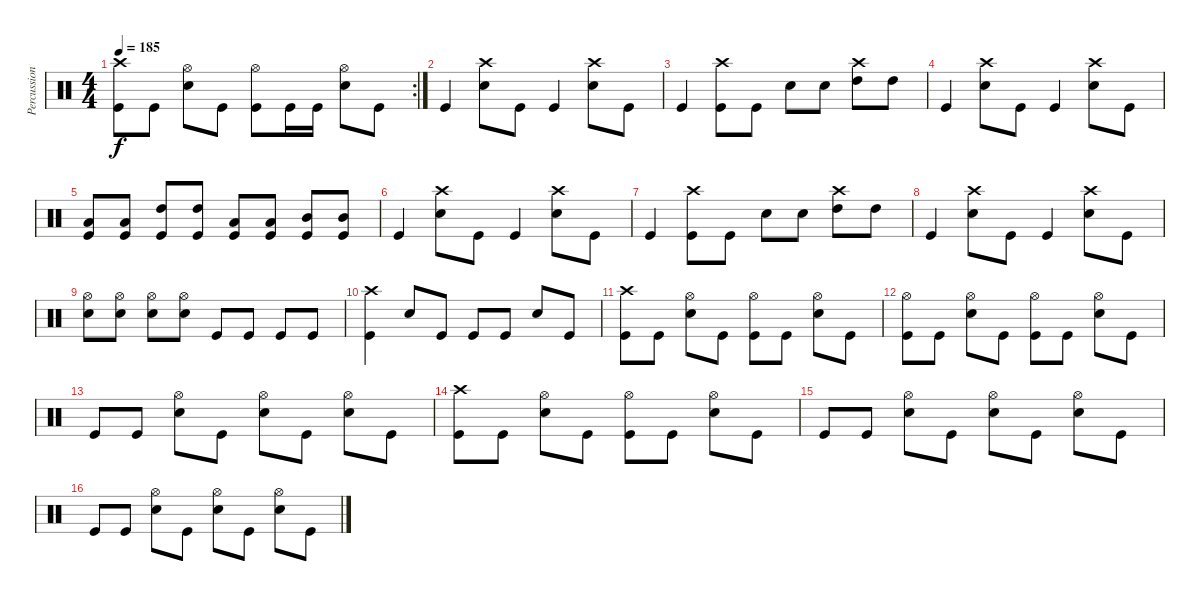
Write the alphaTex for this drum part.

\track ("Percussions" "Percussion") {instrument percussion}
\staff {score}
\articulation defaults
\rc 2
\ts (4 4)
\tempo 185
\clef neutral
\ks c
("Crash high (hit)" "Kick (hit)").8{dy f} "Kick (hit)".8 ("Hi-Hat (open)" "Snare (hit) 2").8 "Kick (hit)".8 ("Hi-Hat (open)" "Kick (hit)").8 "Kick (hit)".16 "Kick (hit)".16 ("Hi-Hat (open)" "Snare (hit) 2").8 "Kick (hit)".8 |
"Kick (hit)".4 ("Crash high (hit)" "Snare (hit) 2").8 "Kick (hit)".8 "Kick (hit)".4 ("Crash high (hit)" "Snare (hit) 2").8 "Kick (hit)".8 |
"Kick (hit)".4 ("Crash high (hit)" "Kick (hit)").8 "Kick (hit)".8 "Snare (hit) 2".8 "Snare (hit) 2".8 ("Crash high (hit)" "High Tom (hit)").8 "High Tom (hit)".8 |
"Kick (hit)".4 ("Crash high (hit)" "Snare (hit) 2").8 "Kick (hit)".8 "Kick (hit)".4 ("Crash high (hit)" "Snare (hit) 2").8 "Kick (hit)".8 |
("Low Tom (hit)" "Kick (hit)").8 ("Low Tom (hit)" "Kick (hit)").8 ("High Tom (hit)" "Kick (hit)").8 ("High Tom (hit)" "Kick (hit)").8 ("Low Tom (hit)" "Kick (hit)").8 ("Low Tom (hit)" "Kick (hit)").8 ("Mid Tom (hit)" "Kick (hit)").8 ("Mid Tom (hit)" "Kick (hit)").8 |
"Kick (hit)".4 ("Crash high (hit)" "Snare (hit) 2").8 "Kick (hit)".8 "Kick (hit)".4 ("Crash high (hit)" "Snare (hit) 2").8 "Kick (hit)".8 |
"Kick (hit)".4 ("Crash high (hit)" "Kick (hit)").8 "Kick (hit)".8 "Snare (hit) 2".8 "Snare (hit) 2".8 ("Crash high (hit)" "High Tom (hit)").8 "High Tom (hit)".8 |
"Kick (hit)".4 ("Crash high (hit)" "Snare (hit) 2").8 "Kick (hit)".8 "Kick (hit)".4 ("Crash high (hit)" "Snare (hit) 2").8 "Kick (hit)".8 |
("Hi-Hat (open)" "Snare (hit) 2").8 ("Hi-Hat (open)" "Snare (hit) 2").8 ("Hi-Hat (open)" "Snare (hit) 2").8 ("Hi-Hat (open)" "Snare (hit) 2").8 "Kick (hit)".8 "Kick (hit)".8 "Kick (hit)".8 "Kick (hit)".8 |
("Crash high (hit)" "Kick (hit)").4 "Snare (hit) 2".8 "Kick (hit)".8 "Kick (hit)".8 "Kick (hit)".8 "Snare (hit) 2".8 "Kick (hit)".8 |
("Crash high (hit)" "Kick (hit)").8 "Kick (hit)".8 ("Hi-Hat (open)" "Snare (hit) 2").8 "Kick (hit)".8 ("Hi-Hat (open)" "Kick (hit)").8 "Kick (hit)".8 ("Hi-Hat (open)" "Snare (hit) 2").8 "Kick (hit)".8 |
("Hi-Hat (open)" "Kick (hit)").8 "Kick (hit)".8 ("Hi-Hat (open)" "Snare (hit) 2").8 "Kick (hit)".8 ("Hi-Hat (open)" "Kick (hit)").8 "Kick (hit)".8 ("Hi-Hat (open)" "Snare (hit) 2").8 "Kick (hit)".8 |
"Kick (hit)".8 "Kick (hit)".8 ("Hi-Hat (open)" "Snare (hit) 2").8 "Kick (hit)".8 ("Hi-Hat (open)" "Snare (hit) 2").8 "Kick (hit)".8 ("Hi-Hat (open)" "Snare (hit) 2").8 "Kick (hit)".8 |
("Crash high (hit)" "Kick (hit)").8 "Kick (hit)".8 ("Hi-Hat (open)" "Snare (hit) 2").8 "Kick (hit)".8 ("Hi-Hat (open)" "Kick (hit)").8 "Kick (hit)".8 ("Hi-Hat (open)" "Snare (hit) 2").8 "Kick (hit)".8 |
"Kick (hit)".8 "Kick (hit)".8 ("Hi-Hat (open)" "Snare (hit) 2").8 "Kick (hit)".8 ("Hi-Hat (open)" "Snare (hit) 2").8 "Kick (hit)".8 ("Hi-Hat (open)" "Snare (hit) 2").8 "Kick (hit)".8 |
"Kick (hit)".8 "Kick (hit)".8 ("Hi-Hat (open)" "Snare (hit) 2").8 "Kick (hit)".8 ("Hi-Hat (open)" "Snare (hit) 2").8 "Kick (hit)".8 ("Hi-Hat (open)" "Snare (hit) 2").8 "Kick (hit)".8
